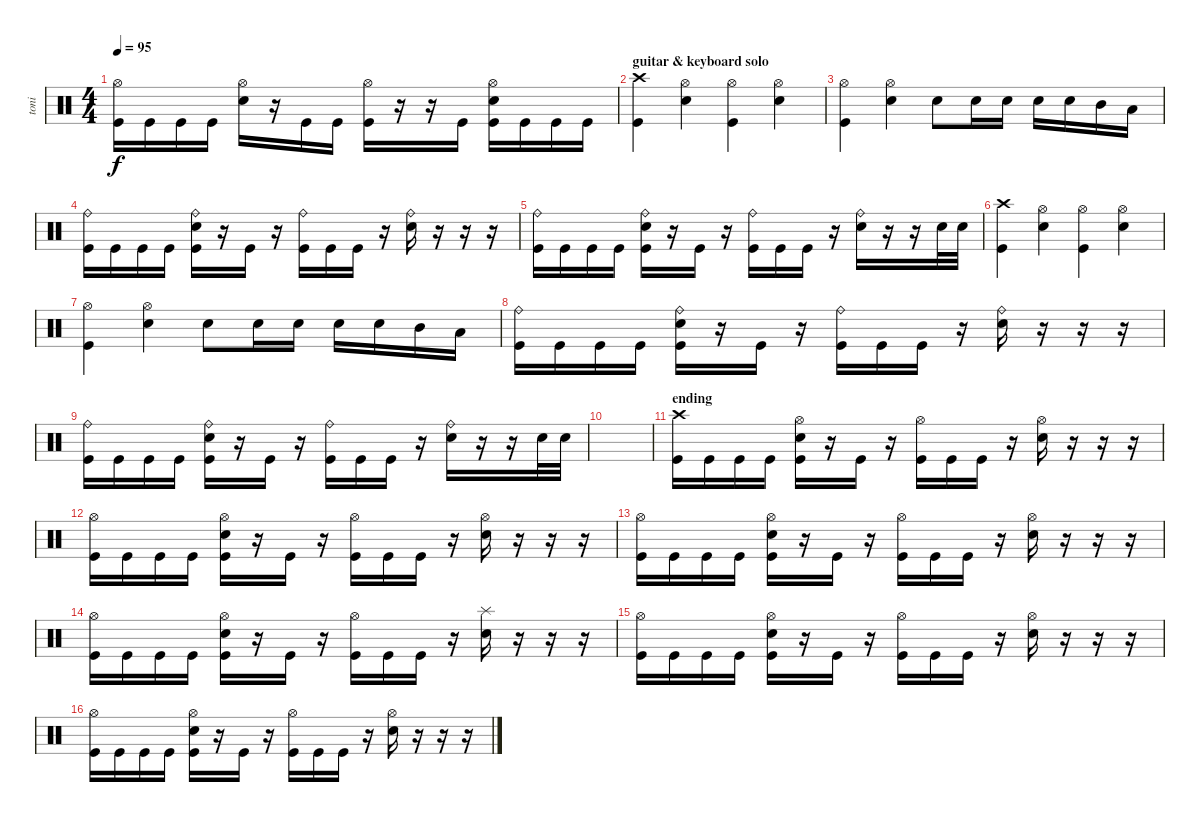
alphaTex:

\track ("toni" "toni") {instrument percussion}
\staff {score}
\articulation defaults
\ts (4 4)
\tempo 95
\clef neutral
\ks c
("Hi-Hat (open)" "Kick (hit)").16{dy f} "Kick (hit)".16 "Kick (hit)".16 "Kick (hit)".16 ("Hi-Hat (open)" "Snare (hit) 2").16 r.16 "Kick (hit)".16 "Kick (hit)".16 ("Hi-Hat (open)" "Kick (hit)").16 r.16 r.16 "Kick (hit)".16 ("Hi-Hat (open)" "Snare (hit) 2" "Kick (hit)").16 "Kick (hit)".16 "Kick (hit)".16 "Kick (hit)".16 |
\section ("" "guitar & keyboard solo")
("Crash high (hit)" "Kick (hit)").4 ("Hi-Hat (open)" "Snare (hit) 2").4 ("Hi-Hat (open)" "Kick (hit)").4 ("Hi-Hat (open)" "Snare (hit) 2").4 |
("Hi-Hat (open)" "Kick (hit)").4 ("Hi-Hat (open)" "Snare (hit) 2").4 "Snare (hit) 2".8 "Snare (hit) 2".16 "Snare (hit) 2".16 "Snare (hit) 2".16 "Snare (hit) 2".16 "Mid Tom (hit)".16 "Low Tom (hit)".16 |
("Ride (bell)" "Kick (hit)").16 "Kick (hit)".16 "Kick (hit)".16 "Kick (hit)".16 ("Ride (bell)" "Snare (hit) 2" "Kick (hit)").16 r.16 "Kick (hit)".16 r.16 ("Ride (bell)" "Kick (hit)").16 "Kick (hit)".16 "Kick (hit)".16 r.16 ("Ride (bell)" "Snare (hit) 2").16 r.16 r.16 r.16 |
("Ride (bell)" "Kick (hit)").16 "Kick (hit)".16 "Kick (hit)".16 "Kick (hit)".16 ("Ride (bell)" "Snare (hit) 2" "Kick (hit)").16 r.16 "Kick (hit)".16 r.16 ("Ride (bell)" "Kick (hit)").16 "Kick (hit)".16 "Kick (hit)".16 r.16 ("Ride (bell)" "Snare (hit) 2").16 r.16 r.16 "Snare (hit) 2".32 "Snare (hit) 2".32 |
("Crash high (hit)" "Kick (hit)").4 ("Hi-Hat (open)" "Snare (hit) 2").4 ("Hi-Hat (open)" "Kick (hit)").4 ("Hi-Hat (open)" "Snare (hit) 2").4 |
("Hi-Hat (open)" "Kick (hit)").4 ("Hi-Hat (open)" "Snare (hit) 2").4 "Snare (hit) 2".8 "Snare (hit) 2".16 "Snare (hit) 2".16 "Snare (hit) 2".16 "Snare (hit) 2".16 "Mid Tom (hit)".16 "Low Tom (hit)".16 |
("Ride (bell)" "Kick (hit)").16 "Kick (hit)".16 "Kick (hit)".16 "Kick (hit)".16 ("Ride (bell)" "Snare (hit) 2" "Kick (hit)").16 r.16 "Kick (hit)".16 r.16 ("Ride (bell)" "Kick (hit)").16 "Kick (hit)".16 "Kick (hit)".16 r.16 ("Ride (bell)" "Snare (hit) 2").16 r.16 r.16 r.16 |
("Ride (bell)" "Kick (hit)").16 "Kick (hit)".16 "Kick (hit)".16 "Kick (hit)".16 ("Ride (bell)" "Snare (hit) 2" "Kick (hit)").16 r.16 "Kick (hit)".16 r.16 ("Ride (bell)" "Kick (hit)").16 "Kick (hit)".16 "Kick (hit)".16 r.16 ("Ride (bell)" "Snare (hit) 2").16 r.16 r.16 "Snare (hit) 2".32 "Snare (hit) 2".32 |
|
\section ("" "ending")
("Crash high (hit)" "Kick (hit)").16 "Kick (hit)".16 "Kick (hit)".16 "Kick (hit)".16 ("Hi-Hat (open)" "Snare (hit) 2" "Kick (hit)").16 r.16 "Kick (hit)".16 r.16 ("Hi-Hat (open)" "Kick (hit)").16 "Kick (hit)".16 "Kick (hit)".16 r.16 ("Hi-Hat (open)" "Snare (hit) 2").16 r.16 r.16 r.16 |
("Hi-Hat (open)" "Kick (hit)").16 "Kick (hit)".16 "Kick (hit)".16 "Kick (hit)".16 ("Hi-Hat (open)" "Snare (hit) 2" "Kick (hit)").16 r.16 "Kick (hit)".16 r.16 ("Hi-Hat (open)" "Kick (hit)").16 "Kick (hit)".16 "Kick (hit)".16 r.16 ("Hi-Hat (open)" "Snare (hit) 2").16 r.16 r.16 r.16 |
("Hi-Hat (open)" "Kick (hit)").16 "Kick (hit)".16 "Kick (hit)".16 "Kick (hit)".16 ("Hi-Hat (open)" "Snare (hit) 2" "Kick (hit)").16 r.16 "Kick (hit)".16 r.16 ("Hi-Hat (open)" "Kick (hit)").16 "Kick (hit)".16 "Kick (hit)".16 r.16 ("Hi-Hat (open)" "Snare (hit) 2").16 r.16 r.16 r.16 |
("Hi-Hat (open)" "Kick (hit)").16 "Kick (hit)".16 "Kick (hit)".16 "Kick (hit)".16 ("Hi-Hat (open)" "Snare (hit) 2" "Kick (hit)").16 r.16 "Kick (hit)".16 r.16 ("Hi-Hat (open)" "Kick (hit)").16 "Kick (hit)".16 "Kick (hit)".16 r.16 ("Splash (hit)" "Snare (hit) 2").16 r.16 r.16 r.16 |
("Hi-Hat (open)" "Kick (hit)").16 "Kick (hit)".16 "Kick (hit)".16 "Kick (hit)".16 ("Hi-Hat (open)" "Snare (hit) 2" "Kick (hit)").16 r.16 "Kick (hit)".16 r.16 ("Hi-Hat (open)" "Kick (hit)").16 "Kick (hit)".16 "Kick (hit)".16 r.16 ("Hi-Hat (open)" "Snare (hit) 2").16 r.16 r.16 r.16 |
("Hi-Hat (open)" "Kick (hit)").16 "Kick (hit)".16 "Kick (hit)".16 "Kick (hit)".16 ("Hi-Hat (open)" "Snare (hit) 2" "Kick (hit)").16 r.16 "Kick (hit)".16 r.16 ("Hi-Hat (open)" "Kick (hit)").16 "Kick (hit)".16 "Kick (hit)".16 r.16 ("Hi-Hat (open)" "Snare (hit) 2").16 r.16 r.16 r.16
